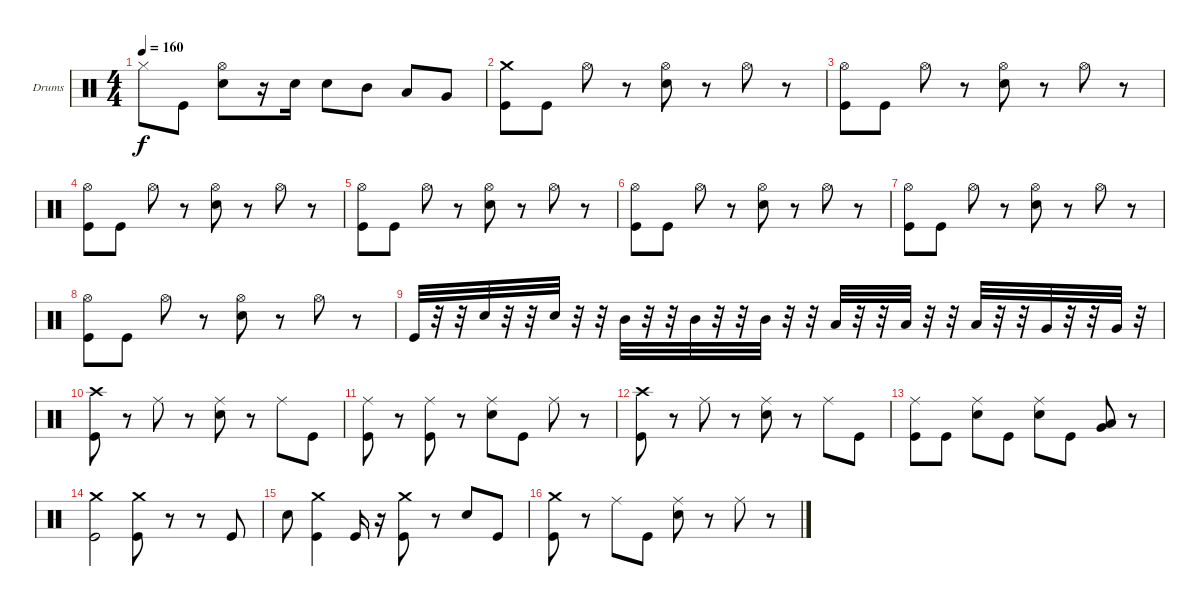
\bracketExtendMode groupsimilarinstruments
\firstSystemTrackNameOrientation horizontal
\otherSystemsTrackNameOrientation horizontal
\track ("Drumkit" "Drums") {instrument percussion}
\staff {score}
\articulation defaults
\ts (4 4)
\tempo 160
\clef neutral
\ks c "Hi-Hat (closed)".8{dy f} "Kick (hit)".8
("Hi-Hat (open)" "Snare (hit) 2").8 r.16 "Snare (hit) 2".16 "Snare (hit) 2".8 "Mid Tom (hit)".8 "Low Tom (hit)".8 "Very Low Tom (hit)".8 |
("Crash medium (hit)" "Kick (hit)").8 "Kick (hit)".8 "Hi-Hat (open)".8 r.8 ("Hi-Hat (open)" "Snare (hit) 2").8 r.8 "Hi-Hat (open)".8 r.8 |
("Hi-Hat (open)" "Kick (hit)").8 "Kick (hit)".8 "Hi-Hat (open)".8 r.8 ("Hi-Hat (open)" "Snare (hit) 2").8 r.8 "Hi-Hat (open)".8 r.8 |
("Hi-Hat (open)" "Kick (hit)").8 "Kick (hit)".8 "Hi-Hat (open)".8 r.8 ("Hi-Hat (open)" "Snare (hit) 2").8 r.8 "Hi-Hat (open)".8 r.8 |
("Hi-Hat (open)" "Kick (hit)").8 "Kick (hit)".8 "Hi-Hat (open)".8 r.8 ("Hi-Hat (open)" "Snare (hit) 2").8 r.8 "Hi-Hat (open)".8 r.8 |
("Hi-Hat (open)" "Kick (hit)").8 "Kick (hit)".8 "Hi-Hat (open)".8 r.8 ("Hi-Hat (open)" "Snare (hit) 2").8 r.8 "Hi-Hat (open)".8 r.8 |
("Hi-Hat (open)" "Kick (hit)").8 "Kick (hit)".8 "Hi-Hat (open)".8 r.8 ("Hi-Hat (open)" "Snare (hit) 2").8 r.8 "Hi-Hat (open)".8 r.8 |
("Hi-Hat (open)" "Kick (hit)").8 "Kick (hit)".8 "Hi-Hat (open)".8 r.8 ("Hi-Hat (open)" "Snare (hit) 2").8 r.8 "Hi-Hat (open)".8 r.8 |
"Kick (hit)".32 r.32 r.32 "Snare (hit) 2".32 r.32 r.32 "Snare (hit) 2".32 r.32 r.32 "Mid Tom (hit)".32 r.32 r.32 "Mid Tom (hit)".32 r.32 r.32 "Mid Tom (hit)".32 r.32 r.32 "Low Tom (hit)".32 r.32 r.32 "Low Tom (hit)".32 r.32 r.32 "Low Tom (hit)".32 r.32 r.32 "Very Low Tom (hit)".32 r.32 r.32 "Very Low Tom (hit)".32 r.32 |
("Crash high (hit)" "Kick (hit)").8 r.8 "Ride (middle)".8 r.8 ("Ride (middle)" "Snare (hit) 2").8 r.8 "Ride (middle)".8 "Kick (hit)".8 |
("Ride (middle)" "Kick (hit)").8 r.8 ("Ride (middle)" "Kick (hit)").8 r.8 ("Ride (middle)" "Snare (hit) 2").8 "Kick (hit)".8 "Ride (middle)".8 r.8 |
("Crash high (hit)" "Kick (hit)").8 r.8 "Ride (middle)".8 r.8 ("Ride (middle)" "Snare (hit) 2").8 r.8 "Ride (middle)".8 "Kick (hit)".8 |
("Ride (middle)" "Kick (hit)").8 "Kick (hit)".8 ("Ride (middle)" "Snare (hit) 2").8 "Kick (hit)".8 ("Ride (middle)" "Snare (hit) 2").8 "Kick (hit)".8 ("Low Tom (hit)" "Very Low Tom (hit)").8 r.8 |
("Crash medium (hit)" "Kick (hit)").2 ("Crash medium (hit)" "Kick (hit)").8 r.8 r.8 "Kick (hit)".8 |
"Snare (hit) 2".8 ("Crash medium (hit)" "Kick (hit)").4 "Kick (hit)".16 r.16 ("Crash medium (hit)" "Kick (hit)").8 r.8 "Snare (hit) 2".8 "Kick (hit)".8 |
("Crash medium (hit)" "Kick (hit)").8 r.8 "Ride (middle)".8 "Kick (hit)".8 ("Ride (middle)" "Snare (hit) 2").8 r.8 "Ride (middle)".8 r.8
